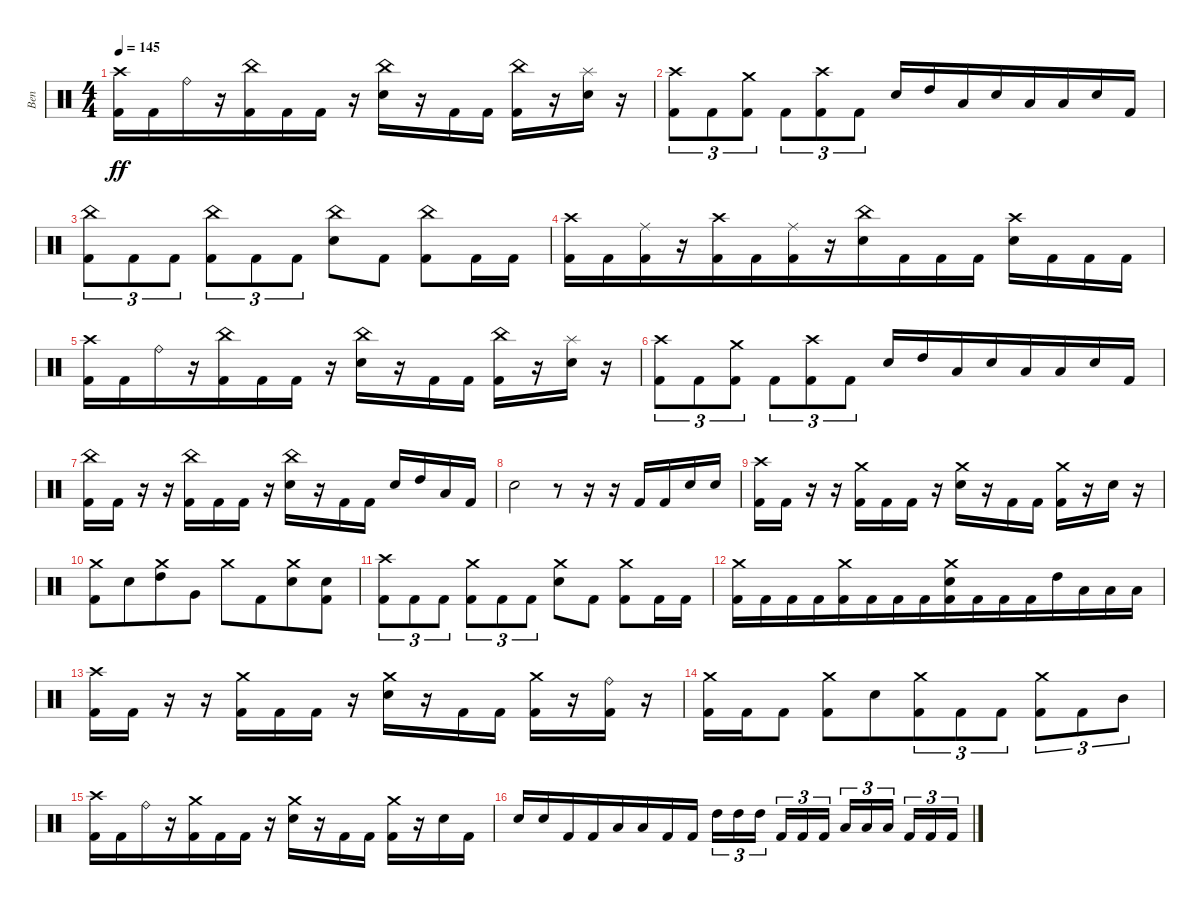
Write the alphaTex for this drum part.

\track ("Ben" "Ben") {instrument percussion}
\staff {score}
\articulation defaults
\ts (4 4)
\tempo 145
\clef neutral
\ks c
("Crash high (hit)" "Kick (hit) 2").16{dy ff} "Kick (hit) 2".16 "Ride (bell)".16{beam merge} r.16 ("China (hit)" "Kick (hit) 2").16{beam merge} "Kick (hit) 2".16{beam merge} "Kick (hit) 2".16 r.16{beam merge} ("Electric Snare (hit)" "China (hit)").16 r.16 "Kick (hit) 2".16 "Kick (hit) 2".16 ("Kick (hit) 2" "China (hit)").16{beam merge} r.16 ("Electric Snare (hit)" "Splash (hit)").16 r.16 |
("Crash high (hit)" "Kick (hit) 2").8{tu (3 2)} "Kick (hit) 2".8{tu (3 2)} ("Crash medium (hit)" "Kick (hit) 2").8{tu (3 2)} "Kick (hit) 2".8{tu (3 2)} ("Crash high (hit)" "Kick (hit) 2").8{tu (3 2)} "Kick (hit) 2".8{tu (3 2)} "Electric Snare (hit)".16 "High Tom (hit)".16{beam merge} "Low Tom (hit)".16{beam merge} "Electric Snare (hit)".16{beam merge} "Low Tom (hit)".16 "Low Tom (hit)".16 "Electric Snare (hit)".16 "Kick (hit) 2".16 |
("Kick (hit) 2" "China (hit)").8{tu (3 2)} "Kick (hit) 2".8{tu (3 2)} "Kick (hit) 2".8{tu (3 2)} ("Kick (hit) 2" "China (hit)").8{tu (3 2)} "Kick (hit) 2".8{tu (3 2)} "Kick (hit) 2".8{tu (3 2)} ("Electric Snare (hit)" "China (hit)").8 "Kick (hit) 2".8 ("Kick (hit) 2" "China (hit)").8{beam merge} "Kick (hit) 2".16 "Kick (hit) 2".16 |
("Crash high (hit)" "Kick (hit) 2").16 "Kick (hit) 2".16{beam merge} ("Ride (middle)" "Kick (hit) 2").16{beam merge} r.16 ("Crash high (hit)" "Kick (hit) 2").16{beam merge} "Kick (hit) 2".16 ("Ride (middle)" "Kick (hit) 2").16{beam merge} r.16{beam merge} ("Electric Snare (hit)" "China (hit)").16 "Kick (hit) 2".16 "Kick (hit) 2".16{beam merge} "Kick (hit) 2".16 ("Electric Snare (hit)" "Crash high (hit)").16{beam merge} "Kick (hit) 2".16 "Kick (hit) 2".16 "Kick (hit) 2".16 |
("Crash high (hit)" "Kick (hit) 2").16 "Kick (hit) 2".16 "Ride (bell)".16{beam merge} r.16 ("China (hit)" "Kick (hit) 2").16{beam merge} "Kick (hit) 2".16{beam merge} "Kick (hit) 2".16 r.16{beam merge} ("Electric Snare (hit)" "China (hit)").16 r.16 "Kick (hit) 2".16 "Kick (hit) 2".16 ("Kick (hit) 2" "China (hit)").16{beam merge} r.16 ("Electric Snare (hit)" "Splash (hit)").16 r.16 |
("Crash high (hit)" "Kick (hit) 2").8{tu (3 2)} "Kick (hit) 2".8{tu (3 2)} ("Crash medium (hit)" "Kick (hit) 2").8{tu (3 2)} "Kick (hit) 2".8{tu (3 2)} ("Crash high (hit)" "Kick (hit) 2").8{tu (3 2)} "Kick (hit) 2".8{tu (3 2)} "Electric Snare (hit)".16 "High Tom (hit)".16{beam merge} "Low Tom (hit)".16{beam merge} "Electric Snare (hit)".16{beam merge} "Low Tom (hit)".16 "Low Tom (hit)".16 "Electric Snare (hit)".16 "Kick (hit) 2".16 |
("China (hit)" "Kick (hit) 2").16 "Kick (hit) 2".16 r.16{beam merge} r.16 ("China (hit)" "Kick (hit) 2").16{beam merge} "Kick (hit) 2".16{beam merge} "Kick (hit) 2".16 r.16{beam merge} ("Electric Snare (hit)" "China (hit)").16 r.16 "Kick (hit) 2".16 "Kick (hit) 2".16 "Electric Snare (hit)".16{beam merge} "High Tom (hit)".16{beam merge} "Low Tom (hit)".16{beam merge} "Kick (hit) 2".16 |
"Electric Snare (hit)".2 r.8 r.16{beam merge} r.16 "Kick (hit) 2".16{beam merge} "Kick (hit) 2".16{beam merge} "Electric Snare (hit)".16 "Electric Snare (hit)".16 |
("Crash high (hit)" "Kick (hit) 2").16 "Kick (hit) 2".16 r.16{beam merge} r.16 ("Crash medium (hit)" "Kick (hit) 2").16{beam merge} "Kick (hit) 2".16{beam merge} "Kick (hit) 2".16 r.16{beam merge} ("Electric Snare (hit)" "Crash medium (hit)").16 r.16 "Kick (hit) 2".16 "Kick (hit) 2".16 ("Kick (hit) 2" "Crash medium (hit)").16{beam merge} r.16 "Electric Snare (hit)".16 r.16 |
("Crash medium (hit)" "Kick (hit) 2").8 "Electric Snare (hit)".8{beam merge} ("Crash medium (hit)" "High Tom (hit)").8{beam merge} "Very Low Tom (hit)".8 "Crash medium (hit)".8{beam merge} "Kick (hit) 2".8{beam merge} ("Crash medium (hit)" "Electric Snare (hit)").8{beam merge} ("Kick (hit) 2" "Snare (hit)").8 |
("Kick (hit) 2" "Crash high (hit)").8{tu (3 2)} "Kick (hit) 2".8{tu (3 2)} "Kick (hit) 2".8{tu (3 2)} ("Kick (hit) 2" "Crash medium (hit)").8{tu (3 2)} "Kick (hit) 2".8{tu (3 2)} "Kick (hit) 2".8{tu (3 2)} ("Electric Snare (hit)" "Crash medium (hit)").8 "Kick (hit) 2".8 ("Kick (hit) 2" "Crash medium (hit)").8{beam merge} "Kick (hit) 2".16 "Kick (hit) 2".16 |
("Crash medium (hit)" "Kick (hit) 2").16{beam merge} "Kick (hit) 2".16 "Kick (hit) 2".16{beam merge} "Kick (hit) 2".16{beam merge} ("Crash medium (hit)" "Kick (hit) 2").16 "Kick (hit) 2".16{beam merge} "Kick (hit) 2".16 "Kick (hit) 2".16{beam merge} ("Crash medium (hit)" "Kick (hit) 2" "Electric Snare (hit)").16 "Kick (hit) 2".16 "Kick (hit) 2".16 "Kick (hit) 2".16{beam merge} "High Tom (hit)".16 "Low Tom (hit)".16{beam merge} "Low Tom (hit)".16 "Low Floor Tom (hit)".16 |
("Crash high (hit)" "Kick (hit) 2").16 "Kick (hit) 2".16 r.16{beam merge} r.16 ("Crash medium (hit)" "Kick (hit) 2").16{beam merge} "Kick (hit) 2".16{beam merge} "Kick (hit) 2".16 r.16{beam merge} ("Electric Snare (hit)" "Crash medium (hit)").16 r.16 "Kick (hit) 2".16 "Kick (hit) 2".16 ("Kick (hit) 2" "Crash medium (hit)").16{beam merge} r.16 ("Ride (bell)" "Kick (hit) 2").16 r.16 |
("Kick (hit) 2" "Crash medium (hit)").16 "Kick (hit) 2".16 "Kick (hit) 2".8 ("Kick (hit) 2" "Crash medium (hit)").8 "Electric Snare (hit)".8{beam merge} ("Kick (hit) 2" "Crash medium (hit)").8{tu (3 2)} "Kick (hit) 2".8{tu (3 2) beam merge} "Kick (hit) 2".8{tu (3 2)} ("Kick (hit) 2" "Crash medium (hit)").8{tu (3 2)} "Kick (hit) 2".8{tu (3 2)} "Mid Tom (hit)".8{tu (3 2)} |
("Crash high (hit)" "Kick (hit) 2").16 "Kick (hit) 2".16 "Ride (bell)".16{beam merge} r.16 ("Crash medium (hit)" "Kick (hit) 2").16{beam merge} "Kick (hit) 2".16{beam merge} "Kick (hit) 2".16 r.16{beam merge} ("Electric Snare (hit)" "Crash medium (hit)").16 r.16 "Kick (hit) 2".16 "Kick (hit) 2".16 ("Kick (hit) 2" "Crash medium (hit)").16{beam merge} r.16 "Electric Snare (hit)".16 "Kick (hit) 2".16 |
"Electric Snare (hit)".16{beam merge} "Electric Snare (hit)".16{beam merge} "Kick (hit) 2".16 "Kick (hit) 2".16{beam merge} "Low Tom (hit)".16{beam merge} "Low Tom (hit)".16 "Kick (hit) 2".16{beam merge} "Kick (hit) 2".16 "High Tom (hit)".16{tu (3 2)} "High Tom (hit)".16{tu (3 2) beam merge} "High Tom (hit)".16{tu (3 2) beam splitsecondary} "Kick (hit) 2".16{tu (3 2) beam merge} "Kick (hit) 2".16{tu (3 2)} "Kick (hit) 2".16{tu (3 2)} "Low Tom (hit)".16{tu (3 2)} "Low Tom (hit)".16{tu (3 2) beam merge} "Low Tom (hit)".16{tu (3 2) beam splitsecondary} "Kick (hit) 2".16{tu (3 2)} "Kick (hit) 2".16{tu (3 2) beam merge} "Kick (hit) 2".16{tu (3 2)}
